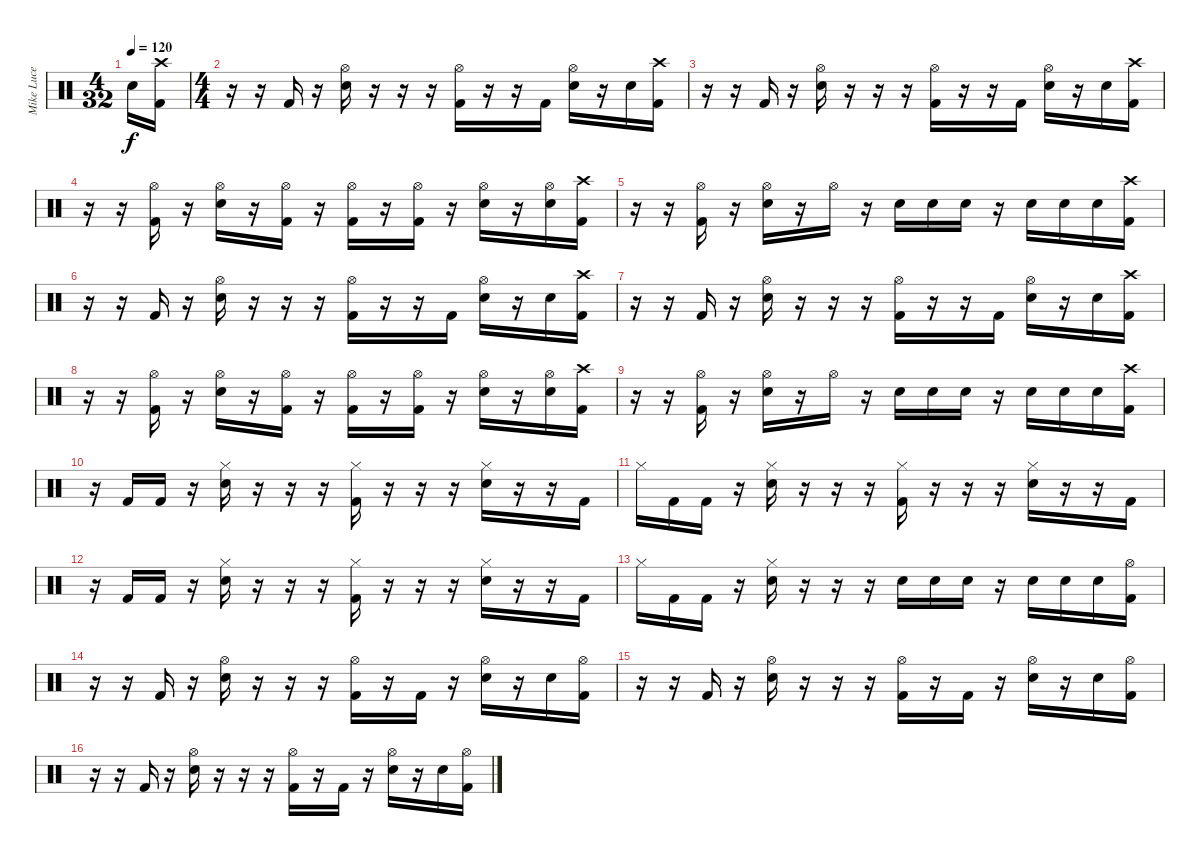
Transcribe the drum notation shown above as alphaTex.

\track ("Mike Luce" "Mike Luce") {instrument percussion}
\staff {score}
\articulation defaults
\ts (4 32)
\tempo 120
\clef neutral
\ks c "Electric Snare (hit)".16{dy f}
("Crash high (hit)" "Kick (hit) 2").16 |
\ts (4 4)
r.16 r.16 "Kick (hit) 2".16 r.16 ("Hi-Hat (open)" "Electric Snare (hit)").16 r.16 r.16 r.16 ("Hi-Hat (open)" "Kick (hit) 2").16 r.16 r.16 "Kick (hit) 2".16 ("Hi-Hat (open)" "Electric Snare (hit)").16 r.16 "Electric Snare (hit)".16 ("Crash high (hit)" "Kick (hit) 2").16 |
r.16 r.16 "Kick (hit) 2".16 r.16 ("Hi-Hat (open)" "Electric Snare (hit)").16 r.16 r.16 r.16 ("Hi-Hat (open)" "Kick (hit) 2").16 r.16 r.16 "Kick (hit) 2".16 ("Hi-Hat (open)" "Electric Snare (hit)").16 r.16 "Electric Snare (hit)".16 ("Crash high (hit)" "Kick (hit) 2").16 |
r.16 r.16 ("Hi-Hat (open)" "Kick (hit) 2").16 r.16 ("Hi-Hat (open)" "Electric Snare (hit)").16 r.16 ("Hi-Hat (open)" "Kick (hit) 2").16 r.16 ("Hi-Hat (open)" "Kick (hit) 2").16 r.16 ("Hi-Hat (open)" "Kick (hit) 2").16 r.16 ("Hi-Hat (open)" "Electric Snare (hit)").16 r.16 ("Hi-Hat (open)" "Electric Snare (hit)").16 ("Crash high (hit)" "Kick (hit) 2").16 |
r.16 r.16 ("Hi-Hat (open)" "Kick (hit) 2").16 r.16 ("Hi-Hat (open)" "Electric Snare (hit)").16 r.16 "Hi-Hat (open)".16 r.16 "Electric Snare (hit)".16 "Electric Snare (hit)".16 "Electric Snare (hit)".16 r.16 "Electric Snare (hit)".16 "Electric Snare (hit)".16 "Electric Snare (hit)".16 ("Crash high (hit)" "Kick (hit) 2").16 |
r.16 r.16 "Kick (hit) 2".16 r.16 ("Hi-Hat (open)" "Electric Snare (hit)").16 r.16 r.16 r.16 ("Hi-Hat (open)" "Kick (hit) 2").16 r.16 r.16 "Kick (hit) 2".16 ("Hi-Hat (open)" "Electric Snare (hit)").16 r.16 "Electric Snare (hit)".16 ("Crash high (hit)" "Kick (hit) 2").16 |
r.16 r.16 "Kick (hit) 2".16 r.16 ("Hi-Hat (open)" "Electric Snare (hit)").16 r.16 r.16 r.16 ("Hi-Hat (open)" "Kick (hit) 2").16 r.16 r.16 "Kick (hit) 2".16 ("Hi-Hat (open)" "Electric Snare (hit)").16 r.16 "Electric Snare (hit)".16 ("Crash high (hit)" "Kick (hit) 2").16 |
r.16 r.16 ("Hi-Hat (open)" "Kick (hit) 2").16 r.16 ("Hi-Hat (open)" "Electric Snare (hit)").16 r.16 ("Hi-Hat (open)" "Kick (hit) 2").16 r.16 ("Hi-Hat (open)" "Kick (hit) 2").16 r.16 ("Hi-Hat (open)" "Kick (hit) 2").16 r.16 ("Hi-Hat (open)" "Electric Snare (hit)").16 r.16 ("Hi-Hat (open)" "Electric Snare (hit)").16 ("Crash high (hit)" "Kick (hit) 2").16 |
r.16 r.16 ("Hi-Hat (open)" "Kick (hit) 2").16 r.16 ("Hi-Hat (open)" "Electric Snare (hit)").16 r.16 "Hi-Hat (open)".16 r.16 "Electric Snare (hit)".16 "Electric Snare (hit)".16 "Electric Snare (hit)".16 r.16 "Electric Snare (hit)".16 "Electric Snare (hit)".16 "Electric Snare (hit)".16 ("Crash high (hit)" "Kick (hit) 2").16 |
r.16 "Kick (hit) 2".16 "Kick (hit) 2".16 r.16 ("Hi-Hat (closed)" "Electric Snare (hit)").16 r.16 r.16 r.16 ("Hi-Hat (closed)" "Kick (hit) 2").16 r.16 r.16 r.16 ("Hi-Hat (closed)" "Electric Snare (hit)").16 r.16 r.16 "Kick (hit) 2".16 |
"Hi-Hat (closed)".16 "Kick (hit) 2".16 "Kick (hit) 2".16 r.16 ("Hi-Hat (closed)" "Electric Snare (hit)").16 r.16 r.16 r.16 ("Hi-Hat (closed)" "Kick (hit) 2").16 r.16 r.16 r.16 ("Hi-Hat (closed)" "Electric Snare (hit)").16 r.16 r.16 "Kick (hit) 2".16 |
r.16 "Kick (hit) 2".16 "Kick (hit) 2".16 r.16 ("Hi-Hat (closed)" "Electric Snare (hit)").16 r.16 r.16 r.16 ("Hi-Hat (closed)" "Kick (hit) 2").16 r.16 r.16 r.16 ("Hi-Hat (closed)" "Electric Snare (hit)").16 r.16 r.16 "Kick (hit) 2".16 |
"Hi-Hat (closed)".16 "Kick (hit) 2".16 "Kick (hit) 2".16 r.16 ("Hi-Hat (closed)" "Electric Snare (hit)").16 r.16 r.16 r.16 "Electric Snare (hit)".16 "Electric Snare (hit)".16 "Electric Snare (hit)".16 r.16 "Electric Snare (hit)".16 "Electric Snare (hit)".16 "Electric Snare (hit)".16 ("Hi-Hat (open)" "Kick (hit) 2").16 |
r.16 r.16 "Kick (hit) 2".16 r.16 ("Hi-Hat (open)" "Electric Snare (hit)").16 r.16 r.16 r.16 ("Hi-Hat (open)" "Kick (hit) 2").16 r.16 "Kick (hit) 2".16 r.16 ("Hi-Hat (open)" "Electric Snare (hit)").16 r.16 "Electric Snare (hit)".16 ("Hi-Hat (open)" "Kick (hit) 2").16 |
r.16 r.16 "Kick (hit) 2".16 r.16 ("Hi-Hat (open)" "Electric Snare (hit)").16 r.16 r.16 r.16 ("Hi-Hat (open)" "Kick (hit) 2").16 r.16 "Kick (hit) 2".16 r.16 ("Hi-Hat (open)" "Electric Snare (hit)").16 r.16 "Electric Snare (hit)".16 ("Hi-Hat (open)" "Kick (hit) 2").16 |
r.16 r.16 "Kick (hit) 2".16 r.16 ("Hi-Hat (open)" "Electric Snare (hit)").16 r.16 r.16 r.16 ("Hi-Hat (open)" "Kick (hit) 2").16 r.16 "Kick (hit) 2".16 r.16 ("Hi-Hat (open)" "Electric Snare (hit)").16 r.16 "Electric Snare (hit)".16 ("Hi-Hat (open)" "Kick (hit) 2").16
